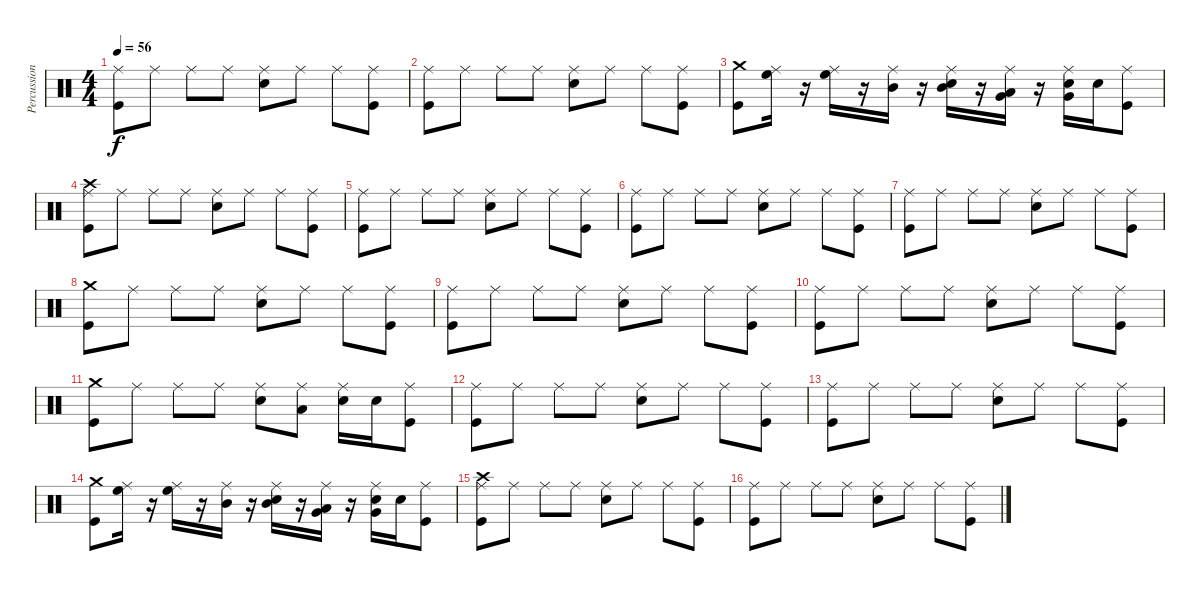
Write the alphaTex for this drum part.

\track ("Percussion" "Percussion") {instrument percussion}
\staff {score}
\articulation defaults
\ts (4 4)
\tempo 56
\clef neutral
\ks c
("Ride (middle)" "Kick (hit)").8{dy f} "Ride (middle)".8 "Ride (middle)".8 "Ride (middle)".8 ("Snare (hit) 2" "Ride (middle)").8 "Ride (middle)".8 "Ride (middle)".8 ("Kick (hit)" "Ride (middle)").8 |
("Ride (middle)" "Kick (hit)").8 "Ride (middle)".8 "Ride (middle)".8 "Ride (middle)".8 ("Snare (hit) 2" "Ride (middle)").8 "Ride (middle)".8 "Ride (middle)".8 ("Kick (hit)" "Ride (middle)").8 |
("Crash medium (hit)" "Kick (hit)").8 ("High Floor Tom (hit)" "Ride (middle)").16 r.16 ("High Floor Tom (hit)" "Ride (middle)").16 r.16 ("Mid Tom (hit)" "Ride (middle)").16 r.16 ("Mid Tom (hit)" "Snare (hit) 2" "Ride (middle)").16 r.16 ("Very Low Tom (hit)" "Low Floor Tom (hit)" "Ride (middle)").16 r.16 ("Very Low Tom (hit)" "Snare (hit) 2" "Ride (middle)").16 "Snare (hit) 2".16 ("Kick (hit)" "Ride (middle)").8 |
("Crash high (hit)" "Kick (hit)" "Ride (middle)").8 "Ride (middle)".8 "Ride (middle)".8 "Ride (middle)".8 ("Snare (hit) 2" "Ride (middle)").8 "Ride (middle)".8 "Ride (middle)".8 ("Kick (hit)" "Ride (middle)").8 |
("Ride (middle)" "Kick (hit)").8 "Ride (middle)".8 "Ride (middle)".8 "Ride (middle)".8 ("Snare (hit) 2" "Ride (middle)").8 "Ride (middle)".8 "Ride (middle)".8 ("Kick (hit)" "Ride (middle)").8 |
("Ride (middle)" "Kick (hit)").8 "Ride (middle)".8 "Ride (middle)".8 "Ride (middle)".8 ("Snare (hit) 2" "Ride (middle)").8 "Ride (middle)".8 "Ride (middle)".8 ("Kick (hit)" "Ride (middle)").8 |
("Ride (middle)" "Kick (hit)").8 "Ride (middle)".8 "Ride (middle)".8 "Ride (middle)".8 ("Snare (hit) 2" "Ride (middle)").8 "Ride (middle)".8 "Ride (middle)".8 ("Kick (hit)" "Ride (middle)").8 |
("Crash medium (hit)" "Kick (hit)").8 "Ride (middle)".8 "Ride (middle)".8 "Ride (middle)".8 ("Snare (hit) 2" "Ride (middle)").8 "Ride (middle)".8 "Ride (middle)".8 ("Kick (hit)" "Ride (middle)").8 |
("Ride (middle)" "Kick (hit)").8 "Ride (middle)".8 "Ride (middle)".8 "Ride (middle)".8 ("Snare (hit) 2" "Ride (middle)").8 "Ride (middle)".8 "Ride (middle)".8 ("Kick (hit)" "Ride (middle)").8 |
("Ride (middle)" "Kick (hit)").8 "Ride (middle)".8 "Ride (middle)".8 "Ride (middle)".8 ("Snare (hit) 2" "Ride (middle)").8 "Ride (middle)".8 "Ride (middle)".8 ("Kick (hit)" "Ride (middle)").8 |
("Crash medium (hit)" "Kick (hit)").8 "Ride (middle)".8 "Ride (middle)".8 "Ride (middle)".8 ("Snare (hit) 2" "Ride (middle)").8 ("Low Floor Tom (hit)" "Ride (middle)").8 ("Snare (hit) 2" "Ride (middle)").16 "Snare (hit) 2".16 ("Kick (hit)" "Ride (middle)").8 |
("Ride (middle)" "Kick (hit)").8 "Ride (middle)".8 "Ride (middle)".8 "Ride (middle)".8 ("Snare (hit) 2" "Ride (middle)").8 "Ride (middle)".8 "Ride (middle)".8 ("Kick (hit)" "Ride (middle)").8 |
("Ride (middle)" "Kick (hit)").8 "Ride (middle)".8 "Ride (middle)".8 "Ride (middle)".8 ("Snare (hit) 2" "Ride (middle)").8 "Ride (middle)".8 "Ride (middle)".8 ("Kick (hit)" "Ride (middle)").8 |
("Crash medium (hit)" "Kick (hit)").8 ("High Floor Tom (hit)" "Ride (middle)").16 r.16 ("High Floor Tom (hit)" "Ride (middle)").16 r.16 ("Mid Tom (hit)" "Ride (middle)").16 r.16 ("Mid Tom (hit)" "Snare (hit) 2" "Ride (middle)").16 r.16 ("Very Low Tom (hit)" "Low Floor Tom (hit)" "Ride (middle)").16 r.16 ("Very Low Tom (hit)" "Snare (hit) 2" "Ride (middle)").16 "Snare (hit) 2".16 ("Kick (hit)" "Ride (middle)").8 |
("Crash high (hit)" "Kick (hit)" "Ride (middle)").8 "Ride (middle)".8 "Ride (middle)".8 "Ride (middle)".8 ("Snare (hit) 2" "Ride (middle)").8 "Ride (middle)".8 "Ride (middle)".8 ("Kick (hit)" "Ride (middle)").8 |
("Ride (middle)" "Kick (hit)").8 "Ride (middle)".8 "Ride (middle)".8 "Ride (middle)".8 ("Snare (hit) 2" "Ride (middle)").8 "Ride (middle)".8 "Ride (middle)".8 ("Kick (hit)" "Ride (middle)").8
